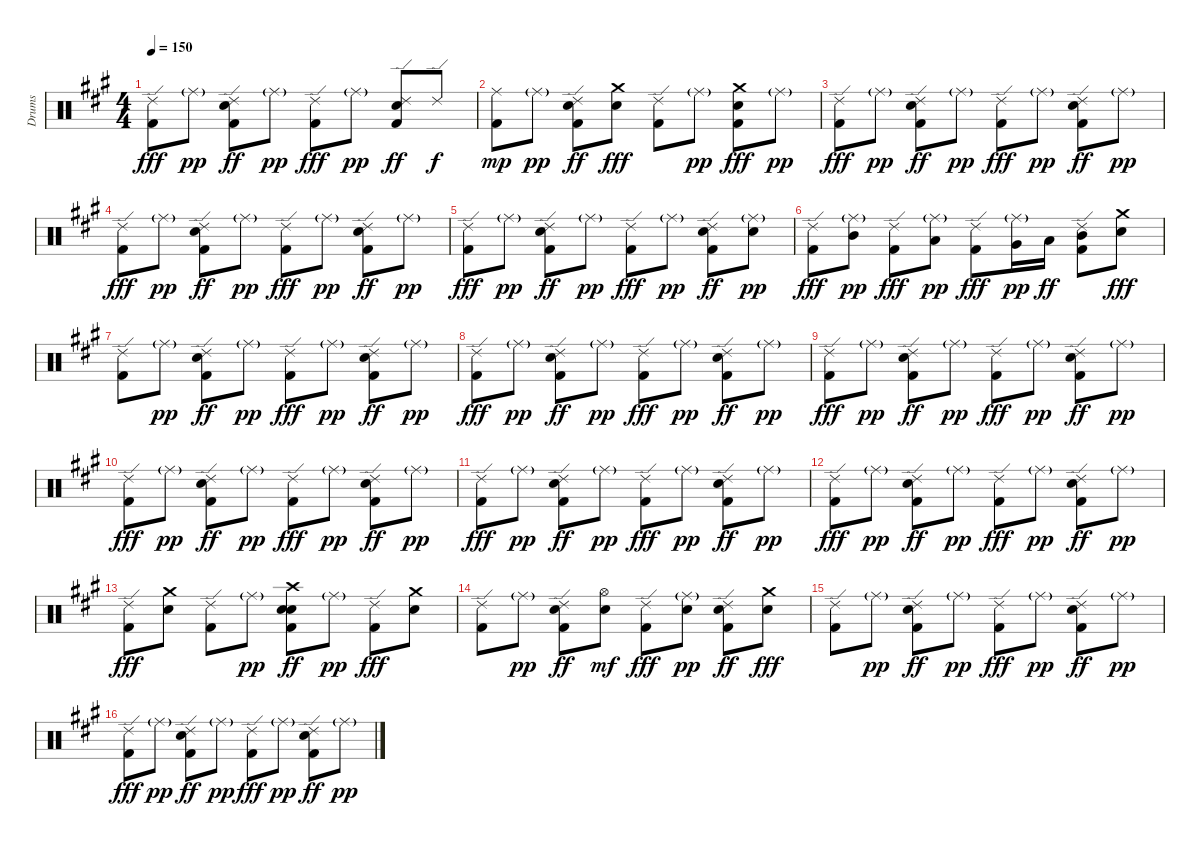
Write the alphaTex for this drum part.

\track ("Drums" "Drums") {instrument percussion}
\staff {score}
\articulation defaults
\ts (4 4)
\tempo 150
\clef neutral
\ks a
("Kick (hit) 2" "Ride (edge) 2").8{dy fff} "Ride (middle)"{g}.8{dy pp} ("Kick (hit) 2" "Electric Snare (hit)" "Ride (edge) 2").8{dy ff} "Ride (middle)"{g}.8{dy pp} ("Kick (hit) 2" "Ride (edge) 2").8{dy fff} "Ride (middle)"{g}.8{dy pp} ("Kick (hit) 2" "Electric Snare (hit)" "Ride (edge) 2").8{dy ff} "Ride (edge) 2".8{dy f} |
("Kick (hit) 2" "Ride (middle)").8{dy mp} "Ride (middle)"{g}.8{dy pp} ("Kick (hit) 2" "Electric Snare (hit)" "Ride (edge) 2").8{dy ff} ("Electric Snare (hit)" "Crash medium (hit)").8{dy fff} ("Kick (hit) 2" "Ride (edge) 2").8 "Ride (middle)"{g}.8{dy pp} ("Kick (hit) 2" "Electric Snare (hit)" "Crash medium (hit)").8{dy fff} "Ride (middle)"{g}.8{dy pp} |
("Kick (hit) 2" "Ride (edge) 2").8{dy fff} "Ride (middle)"{g}.8{dy pp} ("Kick (hit) 2" "Electric Snare (hit)" "Ride (edge) 2").8{dy ff} "Ride (middle)"{g}.8{dy pp} ("Kick (hit) 2" "Ride (edge) 2").8{dy fff} "Ride (middle)"{g}.8{dy pp} ("Kick (hit) 2" "Electric Snare (hit)" "Ride (edge) 2").8{dy ff} "Ride (middle)"{g}.8{dy pp} |
("Kick (hit) 2" "Ride (edge) 2").8{dy fff} "Ride (middle)"{g}.8{dy pp} ("Kick (hit) 2" "Electric Snare (hit)" "Ride (edge) 2").8{dy ff} "Ride (middle)"{g}.8{dy pp} ("Kick (hit) 2" "Ride (edge) 2").8{dy fff} "Ride (middle)"{g}.8{dy pp} ("Kick (hit) 2" "Electric Snare (hit)" "Ride (edge) 2").8{dy ff} "Ride (middle)"{g}.8{dy pp} |
("Kick (hit) 2" "Ride (edge) 2").8{dy fff} "Ride (middle)"{g}.8{dy pp} ("Kick (hit) 2" "Electric Snare (hit)" "Ride (edge) 2").8{dy ff} "Ride (middle)"{g}.8{dy pp} ("Kick (hit) 2" "Ride (edge) 2").8{dy fff} "Ride (middle)"{g}.8{dy pp} ("Kick (hit) 2" "Electric Snare (hit)" "Ride (edge) 2").8{dy ff} ("Electric Snare (hit)" "Ride (middle)"{g}).8{dy pp} |
("Kick (hit) 2" "Ride (edge) 2").8{dy fff} ("Mid Tom (hit)" "Ride (middle)"{g}).8{dy pp} ("Kick (hit) 2" "Ride (edge) 2").8{dy fff} ("Low Tom (hit)" "Ride (middle)"{g}).8{dy pp} ("Kick (hit) 2" "Ride (edge) 2").8{dy fff} ("Very Low Tom (hit)" "Ride (middle)"{g}).16{dy pp} "Low Tom (hit)".16{dy ff} ("Kick (hit) 2" "Mid Tom (hit)" "Ride (edge) 2").8 ("Electric Snare (hit)" "Crash medium (hit)").8{dy fff} |
("Kick (hit) 2" "Ride (edge) 2").8 "Ride (middle)"{g}.8{dy pp} ("Kick (hit) 2" "Electric Snare (hit)" "Ride (edge) 2").8{dy ff} "Ride (middle)"{g}.8{dy pp} ("Kick (hit) 2" "Ride (edge) 2").8{dy fff} "Ride (middle)"{g}.8{dy pp} ("Kick (hit) 2" "Electric Snare (hit)" "Ride (edge) 2").8{dy ff} "Ride (middle)"{g}.8{dy pp} |
("Kick (hit) 2" "Ride (edge) 2").8{dy fff} "Ride (middle)"{g}.8{dy pp} ("Kick (hit) 2" "Electric Snare (hit)" "Ride (edge) 2").8{dy ff} "Ride (middle)"{g}.8{dy pp} ("Kick (hit) 2" "Ride (edge) 2").8{dy fff} "Ride (middle)"{g}.8{dy pp} ("Kick (hit) 2" "Electric Snare (hit)" "Ride (edge) 2").8{dy ff} "Ride (middle)"{g}.8{dy pp} |
("Kick (hit) 2" "Ride (edge) 2").8{dy fff} "Ride (middle)"{g}.8{dy pp} ("Kick (hit) 2" "Electric Snare (hit)" "Ride (edge) 2").8{dy ff} "Ride (middle)"{g}.8{dy pp} ("Kick (hit) 2" "Ride (edge) 2").8{dy fff} "Ride (middle)"{g}.8{dy pp} ("Kick (hit) 2" "Electric Snare (hit)" "Ride (edge) 2").8{dy ff} "Ride (middle)"{g}.8{dy pp} |
("Kick (hit) 2" "Ride (edge) 2").8{dy fff} "Ride (middle)"{g}.8{dy pp} ("Kick (hit) 2" "Electric Snare (hit)" "Ride (edge) 2").8{dy ff} "Ride (middle)"{g}.8{dy pp} ("Kick (hit) 2" "Ride (edge) 2").8{dy fff} "Ride (middle)"{g}.8{dy pp} ("Kick (hit) 2" "Electric Snare (hit)" "Ride (edge) 2").8{dy ff} "Ride (middle)"{g}.8{dy pp} |
("Kick (hit) 2" "Ride (edge) 2").8{dy fff} "Ride (middle)"{g}.8{dy pp} ("Kick (hit) 2" "Electric Snare (hit)" "Ride (edge) 2").8{dy ff} "Ride (middle)"{g}.8{dy pp} ("Kick (hit) 2" "Ride (edge) 2").8{dy fff} "Ride (middle)"{g}.8{dy pp} ("Kick (hit) 2" "Electric Snare (hit)" "Ride (edge) 2").8{dy ff} "Ride (middle)"{g}.8{dy pp} |
("Kick (hit) 2" "Ride (edge) 2").8{dy fff} "Ride (middle)"{g}.8{dy pp} ("Kick (hit) 2" "Electric Snare (hit)" "Ride (edge) 2").8{dy ff} "Ride (middle)"{g}.8{dy pp} ("Kick (hit) 2" "Ride (edge) 2").8{dy fff} "Ride (middle)"{g}.8{dy pp} ("Kick (hit) 2" "Electric Snare (hit)" "Ride (edge) 2").8{dy ff} "Ride (middle)"{g}.8{dy pp} |
("Kick (hit) 2" "Ride (edge) 2").8{dy fff} ("Electric Snare (hit)" "Crash medium (hit)").8 ("Kick (hit) 2" "Ride (edge) 2").8 "Ride (middle)"{g}.8{dy pp} ("Kick (hit) 2" "Snare (hit) 2" "Electric Snare (hit)" "Crash high (hit)").8{dy ff} "Ride (middle)"{g}.8{dy pp} ("Kick (hit) 2" "Ride (edge) 2").8{dy fff} ("Electric Snare (hit)" "Crash medium (hit)").8 |
("Kick (hit) 2" "Ride (edge) 2").8 "Ride (middle)"{g}.8{dy pp} ("Kick (hit) 2" "Electric Snare (hit)" "Ride (edge) 2").8{dy ff} ("Electric Snare (hit)" "Hi-Hat (open)").8{dy mf} ("Kick (hit) 2" "Ride (edge) 2").8{dy fff} ("Electric Snare (hit)" "Ride (middle)"{g}).8{dy pp} ("Kick (hit) 2" "Electric Snare (hit)" "Ride (edge) 2").8{dy ff} ("Electric Snare (hit)" "Crash medium (hit)").8{dy fff} |
("Kick (hit) 2" "Ride (edge) 2").8 "Ride (middle)"{g}.8{dy pp} ("Kick (hit) 2" "Electric Snare (hit)" "Ride (edge) 2").8{dy ff} "Ride (middle)"{g}.8{dy pp} ("Kick (hit) 2" "Ride (edge) 2").8{dy fff} "Ride (middle)"{g}.8{dy pp} ("Kick (hit) 2" "Electric Snare (hit)" "Ride (edge) 2").8{dy ff} "Ride (middle)"{g}.8{dy pp} |
("Kick (hit) 2" "Ride (edge) 2").8{dy fff} "Ride (middle)"{g}.8{dy pp} ("Kick (hit) 2" "Electric Snare (hit)" "Ride (edge) 2").8{dy ff} "Ride (middle)"{g}.8{dy pp} ("Kick (hit) 2" "Ride (edge) 2").8{dy fff} "Ride (middle)"{g}.8{dy pp} ("Kick (hit) 2" "Electric Snare (hit)" "Ride (edge) 2").8{dy ff} "Ride (middle)"{g}.8{dy pp}
